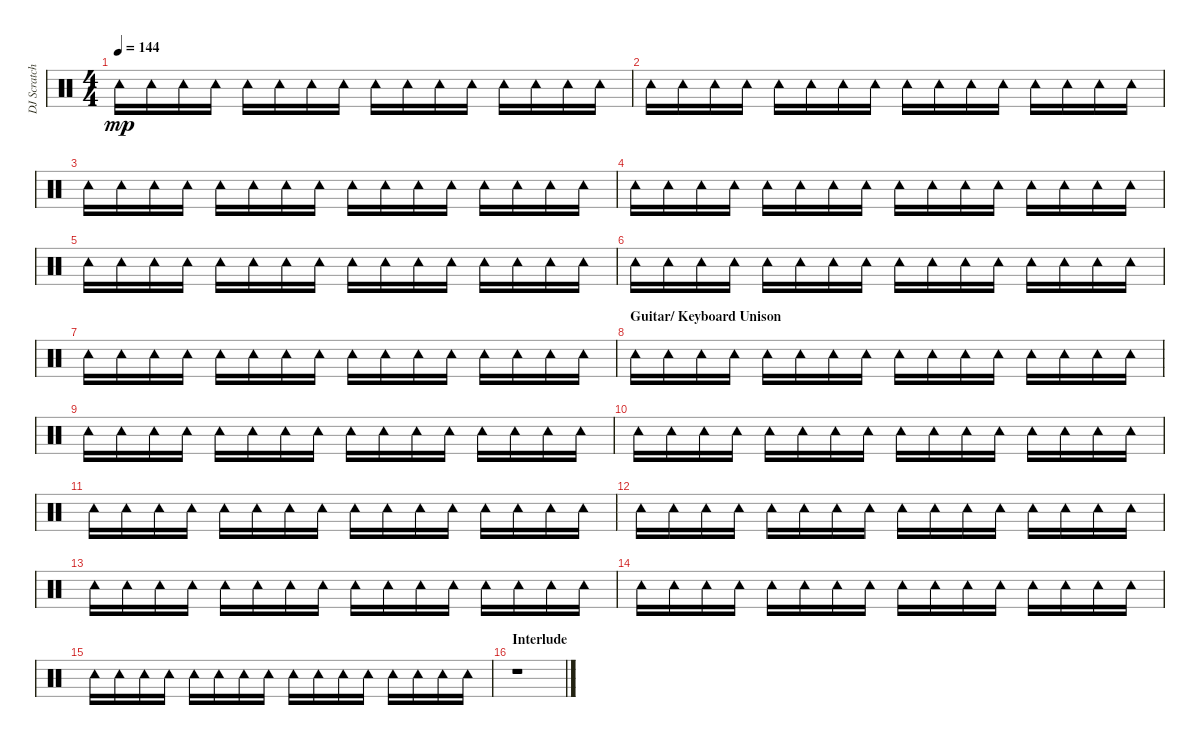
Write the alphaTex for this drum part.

\track ("DJ Scratches/ Percussion" "DJ Scratch") {instrument percussion}
\staff {score}
\articulation defaults
\ts (4 4)
\tempo 144
\clef neutral
\ks c "Tambourine (hit)".16{dy mp} "Tambourine (hit)".16 "Tambourine (hit)".16 "Tambourine (hit)".16 "Tambourine (hit)".16 "Tambourine (hit)".16 "Tambourine (hit)".16 "Tambourine (hit)".16 "Tambourine (hit)".16 "Tambourine (hit)".16 "Tambourine (hit)".16 "Tambourine (hit)".16 "Tambourine (hit)".16 "Tambourine (hit)".16 "Tambourine (hit)".16 "Tambourine (hit)".16
|
"Tambourine (hit)".16 "Tambourine (hit)".16 "Tambourine (hit)".16 "Tambourine (hit)".16 "Tambourine (hit)".16 "Tambourine (hit)".16 "Tambourine (hit)".16 "Tambourine (hit)".16 "Tambourine (hit)".16 "Tambourine (hit)".16 "Tambourine (hit)".16 "Tambourine (hit)".16 "Tambourine (hit)".16 "Tambourine (hit)".16 "Tambourine (hit)".16 "Tambourine (hit)".16 |
"Tambourine (hit)".16 "Tambourine (hit)".16 "Tambourine (hit)".16 "Tambourine (hit)".16 "Tambourine (hit)".16 "Tambourine (hit)".16 "Tambourine (hit)".16 "Tambourine (hit)".16 "Tambourine (hit)".16 "Tambourine (hit)".16 "Tambourine (hit)".16 "Tambourine (hit)".16 "Tambourine (hit)".16 "Tambourine (hit)".16 "Tambourine (hit)".16 "Tambourine (hit)".16 |
"Tambourine (hit)".16 "Tambourine (hit)".16 "Tambourine (hit)".16 "Tambourine (hit)".16 "Tambourine (hit)".16 "Tambourine (hit)".16 "Tambourine (hit)".16 "Tambourine (hit)".16 "Tambourine (hit)".16 "Tambourine (hit)".16 "Tambourine (hit)".16 "Tambourine (hit)".16 "Tambourine (hit)".16 "Tambourine (hit)".16 "Tambourine (hit)".16 "Tambourine (hit)".16 |
"Tambourine (hit)".16 "Tambourine (hit)".16 "Tambourine (hit)".16 "Tambourine (hit)".16 "Tambourine (hit)".16 "Tambourine (hit)".16 "Tambourine (hit)".16 "Tambourine (hit)".16 "Tambourine (hit)".16 "Tambourine (hit)".16 "Tambourine (hit)".16 "Tambourine (hit)".16 "Tambourine (hit)".16 "Tambourine (hit)".16 "Tambourine (hit)".16 "Tambourine (hit)".16 |
"Tambourine (hit)".16 "Tambourine (hit)".16 "Tambourine (hit)".16 "Tambourine (hit)".16 "Tambourine (hit)".16 "Tambourine (hit)".16 "Tambourine (hit)".16 "Tambourine (hit)".16 "Tambourine (hit)".16 "Tambourine (hit)".16 "Tambourine (hit)".16 "Tambourine (hit)".16 "Tambourine (hit)".16 "Tambourine (hit)".16 "Tambourine (hit)".16 "Tambourine (hit)".16 |
"Tambourine (hit)".16 "Tambourine (hit)".16 "Tambourine (hit)".16 "Tambourine (hit)".16 "Tambourine (hit)".16 "Tambourine (hit)".16 "Tambourine (hit)".16 "Tambourine (hit)".16 "Tambourine (hit)".16 "Tambourine (hit)".16 "Tambourine (hit)".16 "Tambourine (hit)".16 "Tambourine (hit)".16 "Tambourine (hit)".16 "Tambourine (hit)".16 "Tambourine (hit)".16 |
\section ("" "Guitar/ Keyboard Unison")
"Tambourine (hit)".16 "Tambourine (hit)".16 "Tambourine (hit)".16 "Tambourine (hit)".16 "Tambourine (hit)".16 "Tambourine (hit)".16 "Tambourine (hit)".16 "Tambourine (hit)".16 "Tambourine (hit)".16 "Tambourine (hit)".16 "Tambourine (hit)".16 "Tambourine (hit)".16 "Tambourine (hit)".16 "Tambourine (hit)".16 "Tambourine (hit)".16 "Tambourine (hit)".16 |
"Tambourine (hit)".16 "Tambourine (hit)".16 "Tambourine (hit)".16 "Tambourine (hit)".16 "Tambourine (hit)".16 "Tambourine (hit)".16 "Tambourine (hit)".16 "Tambourine (hit)".16 "Tambourine (hit)".16 "Tambourine (hit)".16 "Tambourine (hit)".16 "Tambourine (hit)".16 "Tambourine (hit)".16 "Tambourine (hit)".16 "Tambourine (hit)".16 "Tambourine (hit)".16 |
"Tambourine (hit)".16 "Tambourine (hit)".16 "Tambourine (hit)".16 "Tambourine (hit)".16 "Tambourine (hit)".16 "Tambourine (hit)".16 "Tambourine (hit)".16 "Tambourine (hit)".16 "Tambourine (hit)".16 "Tambourine (hit)".16 "Tambourine (hit)".16 "Tambourine (hit)".16 "Tambourine (hit)".16 "Tambourine (hit)".16 "Tambourine (hit)".16 "Tambourine (hit)".16 |
"Tambourine (hit)".16 "Tambourine (hit)".16 "Tambourine (hit)".16 "Tambourine (hit)".16 "Tambourine (hit)".16 "Tambourine (hit)".16 "Tambourine (hit)".16 "Tambourine (hit)".16 "Tambourine (hit)".16 "Tambourine (hit)".16 "Tambourine (hit)".16 "Tambourine (hit)".16 "Tambourine (hit)".16 "Tambourine (hit)".16 "Tambourine (hit)".16 "Tambourine (hit)".16 |
"Tambourine (hit)".16 "Tambourine (hit)".16 "Tambourine (hit)".16 "Tambourine (hit)".16 "Tambourine (hit)".16 "Tambourine (hit)".16 "Tambourine (hit)".16 "Tambourine (hit)".16 "Tambourine (hit)".16 "Tambourine (hit)".16 "Tambourine (hit)".16 "Tambourine (hit)".16 "Tambourine (hit)".16 "Tambourine (hit)".16 "Tambourine (hit)".16 "Tambourine (hit)".16 |
"Tambourine (hit)".16 "Tambourine (hit)".16 "Tambourine (hit)".16 "Tambourine (hit)".16 "Tambourine (hit)".16 "Tambourine (hit)".16 "Tambourine (hit)".16 "Tambourine (hit)".16 "Tambourine (hit)".16 "Tambourine (hit)".16 "Tambourine (hit)".16 "Tambourine (hit)".16 "Tambourine (hit)".16 "Tambourine (hit)".16 "Tambourine (hit)".16 "Tambourine (hit)".16 |
"Tambourine (hit)".16 "Tambourine (hit)".16 "Tambourine (hit)".16 "Tambourine (hit)".16 "Tambourine (hit)".16 "Tambourine (hit)".16 "Tambourine (hit)".16 "Tambourine (hit)".16 "Tambourine (hit)".16 "Tambourine (hit)".16 "Tambourine (hit)".16 "Tambourine (hit)".16 "Tambourine (hit)".16 "Tambourine (hit)".16 "Tambourine (hit)".16 "Tambourine (hit)".16 |
"Tambourine (hit)".16 "Tambourine (hit)".16 "Tambourine (hit)".16 "Tambourine (hit)".16 "Tambourine (hit)".16 "Tambourine (hit)".16 "Tambourine (hit)".16 "Tambourine (hit)".16 "Tambourine (hit)".16 "Tambourine (hit)".16 "Tambourine (hit)".16 "Tambourine (hit)".16 "Tambourine (hit)".16 "Tambourine (hit)".16 "Tambourine (hit)".16 "Tambourine (hit)".16 |
\section ("" "Interlude")
r.1
